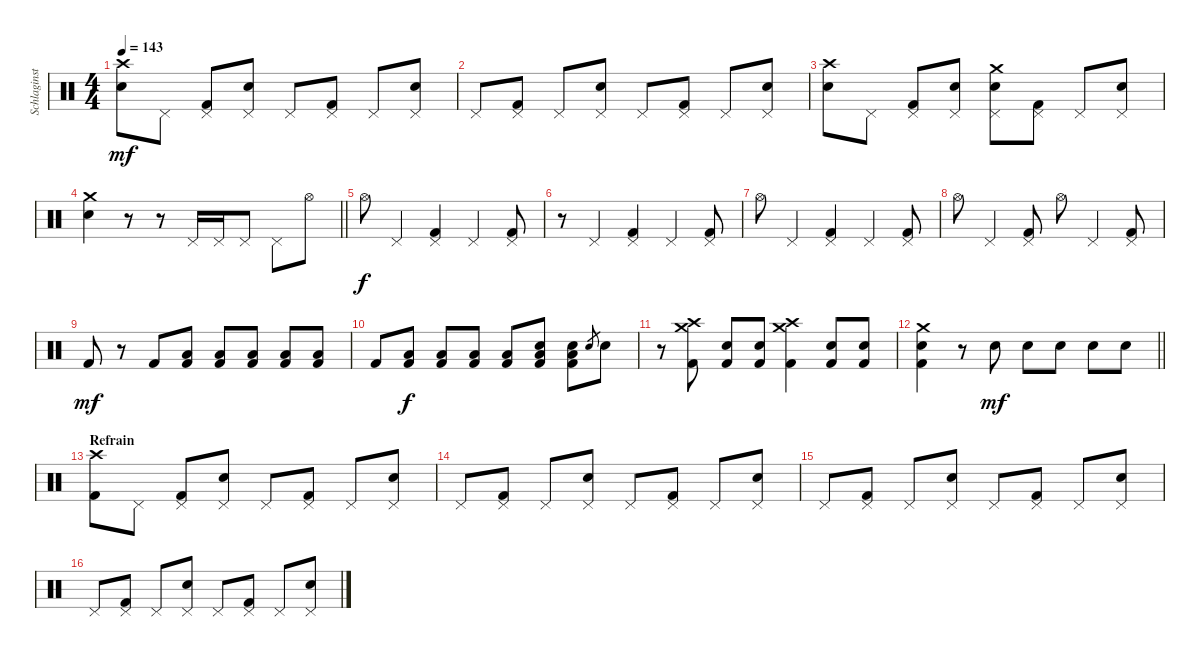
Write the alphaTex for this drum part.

\track ("Schlaginstrumente - Auswahl" "Schlaginst") {instrument percussion}
\staff {score}
\articulation defaults
\ts (4 4)
\tempo 143
\clef neutral
\ks c
("Crash high (hit)" "Electric Snare (hit)").8{dy mf} "Pedal Hi-Hat (hit)".8 ("Pedal Hi-Hat (hit)" "Kick (hit) 2").8 ("Pedal Hi-Hat (hit)" "Electric Snare (hit)").8 "Pedal Hi-Hat (hit)".8 ("Pedal Hi-Hat (hit)" "Kick (hit) 2").8 "Pedal Hi-Hat (hit)".8 ("Pedal Hi-Hat (hit)" "Electric Snare (hit)").8 |
"Pedal Hi-Hat (hit)".8 ("Pedal Hi-Hat (hit)" "Kick (hit) 2").8 "Pedal Hi-Hat (hit)".8 ("Pedal Hi-Hat (hit)" "Electric Snare (hit)").8 "Pedal Hi-Hat (hit)".8 ("Pedal Hi-Hat (hit)" "Kick (hit) 2").8 "Pedal Hi-Hat (hit)".8 ("Pedal Hi-Hat (hit)" "Electric Snare (hit)").8 |
("Crash high (hit)" "Electric Snare (hit)").8 "Pedal Hi-Hat (hit)".8 ("Pedal Hi-Hat (hit)" "Kick (hit) 2").8 ("Pedal Hi-Hat (hit)" "Electric Snare (hit)").8 ("Pedal Hi-Hat (hit)" "Crash medium (hit)" "Electric Snare (hit)").8 ("Pedal Hi-Hat (hit)" "Kick (hit) 2").8 "Pedal Hi-Hat (hit)".8 ("Pedal Hi-Hat (hit)" "Electric Snare (hit)").8 |
\barLineRight lightlight
("Crash medium (hit)" "Electric Snare (hit)").4 r.8 r.8 "Pedal Hi-Hat (hit)".16 "Pedal Hi-Hat (hit)".16 "Pedal Hi-Hat (hit)".8 "Pedal Hi-Hat (hit)".8 "Hi-Hat (open)".8 |
"Hi-Hat (open)".8{dy f} "Pedal Hi-Hat (hit)".4 ("Pedal Hi-Hat (hit)" "Kick (hit) 2").4 "Pedal Hi-Hat (hit)".4 ("Pedal Hi-Hat (hit)" "Kick (hit) 2").8 |
r.8 "Pedal Hi-Hat (hit)".4 ("Pedal Hi-Hat (hit)" "Kick (hit) 2").4 "Pedal Hi-Hat (hit)".4 ("Pedal Hi-Hat (hit)" "Kick (hit) 2").8 |
"Hi-Hat (open)".8 "Pedal Hi-Hat (hit)".4 ("Pedal Hi-Hat (hit)" "Kick (hit) 2").4 "Pedal Hi-Hat (hit)".4 ("Pedal Hi-Hat (hit)" "Kick (hit) 2").8 |
"Hi-Hat (open)".8 "Pedal Hi-Hat (hit)".4 ("Pedal Hi-Hat (hit)" "Kick (hit) 2").8 "Hi-Hat (open)".8 "Pedal Hi-Hat (hit)".4 ("Pedal Hi-Hat (hit)" "Kick (hit) 2").8 |
"Kick (hit) 2".8{dy mf} r.8 "Kick (hit) 2".8 ("Low Floor Tom (hit)" "Kick (hit) 2").8 ("Low Floor Tom (hit)" "Kick (hit) 2").8 ("Low Floor Tom (hit)" "Kick (hit) 2").8 ("Low Floor Tom (hit)" "Kick (hit) 2").8 ("Low Floor Tom (hit)" "Kick (hit) 2").8 |
"Kick (hit) 2".8 ("Low Floor Tom (hit)" "Kick (hit) 2").8{dy f} ("Low Floor Tom (hit)" "Kick (hit) 2").8 ("Low Floor Tom (hit)" "Kick (hit) 2").8 ("Low Floor Tom (hit)" "Kick (hit) 2").8 ("Electric Snare (hit)" "Low Floor Tom (hit)" "Kick (hit) 2").8 ("Electric Snare (hit)" "Low Floor Tom (hit)" "Kick (hit) 2").8 "Electric Snare (hit)".8{gr} "Electric Snare (hit)".8 |
r.8 ("Crash medium (hit)" "Crash high (hit)" "Kick (hit) 2").8 ("Electric Snare (hit)" "Kick (hit) 2").8 ("Electric Snare (hit)" "Kick (hit) 2").8 ("Crash medium (hit)" "Crash high (hit)" "Kick (hit) 2").4 ("Electric Snare (hit)" "Kick (hit) 2").8 ("Electric Snare (hit)" "Kick (hit) 2").8 |
\barLineRight lightlight
("Electric Snare (hit)" "Crash medium (hit)" "Kick (hit) 2").4 r.8 "Electric Snare (hit)".8{dy mf} "Electric Snare (hit)".8 "Electric Snare (hit)".8 "Electric Snare (hit)".8 "Electric Snare (hit)".8 |
\section ("" "Refrain")
("Crash high (hit)" "Kick (hit) 2").8 "Pedal Hi-Hat (hit)".8 ("Pedal Hi-Hat (hit)" "Kick (hit) 2").8 ("Pedal Hi-Hat (hit)" "Electric Snare (hit)").8 "Pedal Hi-Hat (hit)".8 ("Pedal Hi-Hat (hit)" "Kick (hit) 2").8 "Pedal Hi-Hat (hit)".8 ("Pedal Hi-Hat (hit)" "Electric Snare (hit)").8 |
"Pedal Hi-Hat (hit)".8 ("Pedal Hi-Hat (hit)" "Kick (hit) 2").8 "Pedal Hi-Hat (hit)".8 ("Pedal Hi-Hat (hit)" "Electric Snare (hit)").8 "Pedal Hi-Hat (hit)".8 ("Pedal Hi-Hat (hit)" "Kick (hit) 2").8 "Pedal Hi-Hat (hit)".8 ("Pedal Hi-Hat (hit)" "Electric Snare (hit)").8 |
"Pedal Hi-Hat (hit)".8 ("Pedal Hi-Hat (hit)" "Kick (hit) 2").8 "Pedal Hi-Hat (hit)".8 ("Pedal Hi-Hat (hit)" "Electric Snare (hit)").8 "Pedal Hi-Hat (hit)".8 ("Pedal Hi-Hat (hit)" "Kick (hit) 2").8 "Pedal Hi-Hat (hit)".8 ("Pedal Hi-Hat (hit)" "Electric Snare (hit)").8 |
"Pedal Hi-Hat (hit)".8 ("Pedal Hi-Hat (hit)" "Kick (hit) 2").8 "Pedal Hi-Hat (hit)".8 ("Pedal Hi-Hat (hit)" "Electric Snare (hit)").8 "Pedal Hi-Hat (hit)".8 ("Pedal Hi-Hat (hit)" "Kick (hit) 2").8 "Pedal Hi-Hat (hit)".8 ("Pedal Hi-Hat (hit)" "Electric Snare (hit)").8
